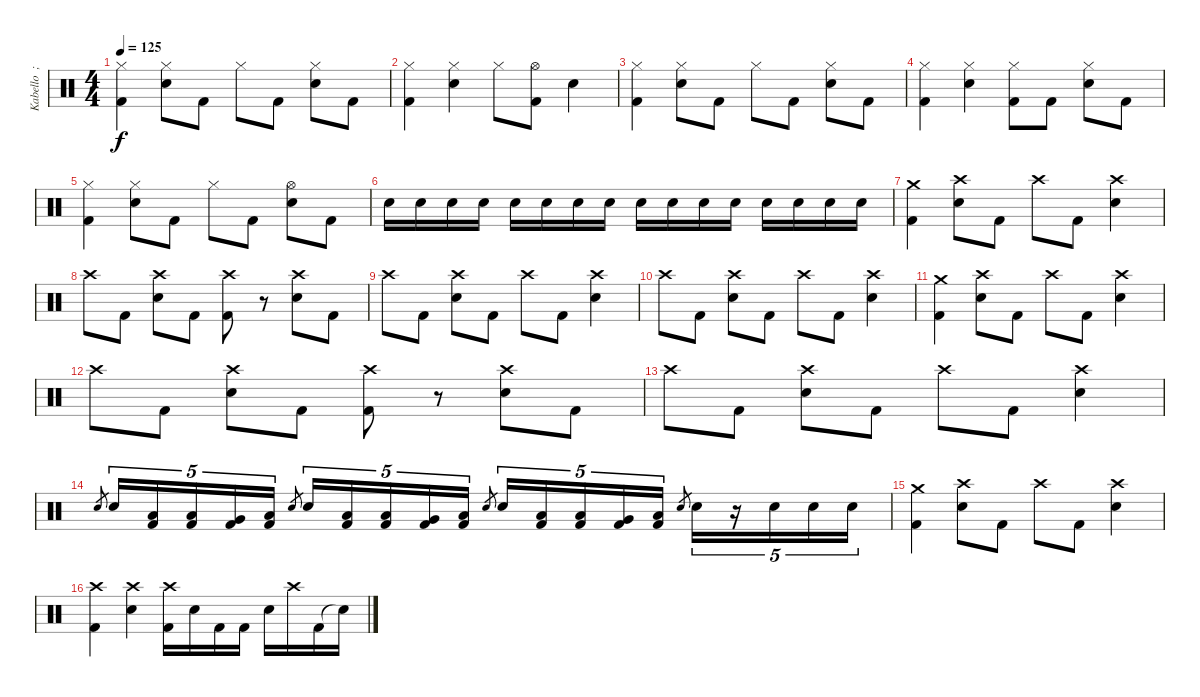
\track ("Kabello  ;-)" "Kabello  ;") {instrument percussion}
\staff {score}
\articulation defaults
\ts (4 4)
\tempo 125
\clef neutral
\ks c
("Hi-Hat (closed)" "Kick (hit) 2").4{dy f} ("Hi-Hat (closed)" "Electric Snare (hit)").8 "Kick (hit) 2".8 "Hi-Hat (closed)".8 "Kick (hit) 2".8 ("Hi-Hat (closed)" "Electric Snare (hit)").8 "Kick (hit) 2".8 |
("Hi-Hat (closed)" "Kick (hit) 2").4 ("Hi-Hat (closed)" "Electric Snare (hit)").4 "Hi-Hat (closed)".8 ("Hi-Hat (open)" "Kick (hit) 2").8 "Electric Snare (hit)".4 |
("Hi-Hat (closed)" "Kick (hit) 2").4 ("Hi-Hat (closed)" "Electric Snare (hit)").8 "Kick (hit) 2".8 "Hi-Hat (closed)".8 "Kick (hit) 2".8 ("Hi-Hat (closed)" "Electric Snare (hit)").8 "Kick (hit) 2".8 |
("Hi-Hat (closed)" "Kick (hit) 2").4 ("Hi-Hat (closed)" "Electric Snare (hit)").4 ("Hi-Hat (closed)" "Kick (hit) 2").8 "Kick (hit) 2".8 ("Hi-Hat (closed)" "Electric Snare (hit)").8 "Kick (hit) 2".8 |
("Hi-Hat (closed)" "Kick (hit) 2").4 ("Hi-Hat (closed)" "Electric Snare (hit)").8 "Kick (hit) 2".8 "Hi-Hat (closed)".8 "Kick (hit) 2".8 ("Hi-Hat (open)" "Electric Snare (hit)").8 "Kick (hit) 2".8 |
"Electric Snare (hit)".16 "Electric Snare (hit)".16 "Electric Snare (hit)".16 "Electric Snare (hit)".16 "Electric Snare (hit)".16 "Electric Snare (hit)".16 "Electric Snare (hit)".16 "Electric Snare (hit)".16 "Electric Snare (hit)".16 "Electric Snare (hit)".16 "Electric Snare (hit)".16 "Electric Snare (hit)".16 "Electric Snare (hit)".16 "Electric Snare (hit)".16 "Electric Snare (hit)".16 "Electric Snare (hit)".16 |
("Crash medium (hit)" "Kick (hit) 2").4 ("Crash high (hit)" "Electric Snare (hit)").8 "Kick (hit) 2".8 "Crash high (hit)".8 "Kick (hit) 2".8 ("Crash high (hit)" "Electric Snare (hit)").4 |
"Crash high (hit)".8 "Kick (hit) 2".8 ("Crash high (hit)" "Electric Snare (hit)").8 "Kick (hit) 2".8 ("Crash high (hit)" "Kick (hit) 2").8 r.8 ("Crash high (hit)" "Electric Snare (hit)").8 "Kick (hit) 2".8 |
"Crash high (hit)".8 "Kick (hit) 2".8 ("Crash high (hit)" "Electric Snare (hit)").8 "Kick (hit) 2".8 "Crash high (hit)".8 "Kick (hit) 2".8 ("Crash high (hit)" "Electric Snare (hit)").4 |
"Crash high (hit)".8 "Kick (hit) 2".8 ("Crash high (hit)" "Electric Snare (hit)").8 "Kick (hit) 2".8 "Crash high (hit)".8 "Kick (hit) 2".8 ("Crash high (hit)" "Electric Snare (hit)").4 |
("Crash medium (hit)" "Kick (hit) 2").4 ("Crash high (hit)" "Electric Snare (hit)").8 "Kick (hit) 2".8 "Crash high (hit)".8 "Kick (hit) 2".8 ("Crash high (hit)" "Electric Snare (hit)").4 |
"Crash high (hit)".8 "Kick (hit) 2".8 ("Crash high (hit)" "Electric Snare (hit)").8 "Kick (hit) 2".8 ("Crash high (hit)" "Kick (hit) 2").8 r.8 ("Crash high (hit)" "Electric Snare (hit)").8 "Kick (hit) 2".8 |
"Crash high (hit)".8 "Kick (hit) 2".8 ("Crash high (hit)" "Electric Snare (hit)").8 "Kick (hit) 2".8 "Crash high (hit)".8 "Kick (hit) 2".8 ("Crash high (hit)" "Electric Snare (hit)").4 |
"Electric Snare (hit)".8{gr} "Electric Snare (hit)".16{tu (5 4)} ("Low Tom (hit)" "Kick (hit) 2").16{tu (5 4)} ("Low Tom (hit)" "Kick (hit) 2").16{tu (5 4)} ("Very Low Tom (hit)" "Kick (hit) 2").16{tu (5 4)} ("Low Floor Tom (hit)" "Kick (hit) 2").16{tu (5 4)} "Electric Snare (hit)".8{gr} "Electric Snare (hit)".16{tu (5 4)} ("Low Tom (hit)" "Kick (hit) 2").16{tu (5 4)} ("Low Tom (hit)" "Kick (hit) 2").16{tu (5 4)} ("Very Low Tom (hit)" "Kick (hit) 2").16{tu (5 4)} ("Low Floor Tom (hit)" "Kick (hit) 2").16{tu (5 4)} "Electric Snare (hit)".8{gr} "Electric Snare (hit)".16{tu (5 4)} ("Low Tom (hit)" "Kick (hit) 2").16{tu (5 4)} ("Low Tom (hit)" "Kick (hit) 2").16{tu (5 4)} ("Very Low Tom (hit)" "Kick (hit) 2").16{tu (5 4)} ("Low Floor Tom (hit)" "Kick (hit) 2").16{tu (5 4)} "Electric Snare (hit)".8{gr} "Electric Snare (hit)".16{tu (5 4)} r.16{tu (5 4)} "Electric Snare (hit)".16{tu (5 4)} "Electric Snare (hit)".16{tu (5 4)} "Electric Snare (hit)".16{tu (5 4)} |
("Crash medium (hit)" "Kick (hit) 2").4 ("Crash high (hit)" "Electric Snare (hit)").8 "Kick (hit) 2".8 "Crash high (hit)".8 "Kick (hit) 2".8 ("Crash high (hit)" "Electric Snare (hit)").4 |
("Crash high (hit)" "Kick (hit) 2").4 ("Crash high (hit)" "Electric Snare (hit)").4 ("Crash high (hit)" "Kick (hit) 2").16 "Electric Snare (hit)".16 "Kick (hit) 2".16 "Kick (hit) 2".16 "Electric Snare (hit)".16 "Crash high (hit)".16 "Kick (hit) 2".16 "Snare (hit)"{t}.16
